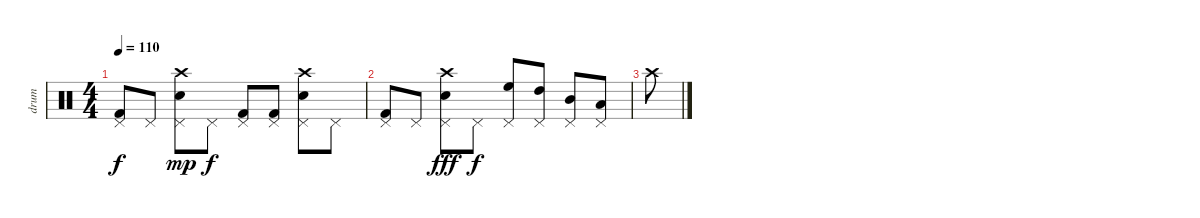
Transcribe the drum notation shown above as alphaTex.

\track ("drum" "drum") {instrument percussion}
\staff {score}
\articulation defaults
\ts (4 4)
\tempo 110
\clef neutral
\ks c
("Pedal Hi-Hat (hit)" "Kick (hit) 2").8{dy f} "Pedal Hi-Hat (hit)".8 ("Pedal Hi-Hat (hit)" "Electric Snare (hit)" "Crash high (hit)").8{dy mp} "Pedal Hi-Hat (hit)".8{dy f} ("Pedal Hi-Hat (hit)" "Kick (hit) 2").8 ("Pedal Hi-Hat (hit)" "Kick (hit) 2").8 ("Pedal Hi-Hat (hit)" "Electric Snare (hit)" "Crash high (hit)").8 "Pedal Hi-Hat (hit)".8 |
("Pedal Hi-Hat (hit)" "Kick (hit) 2").8 "Pedal Hi-Hat (hit)".8 ("Pedal Hi-Hat (hit)" "Electric Snare (hit)" "Crash high (hit)").8{dy fff} "Pedal Hi-Hat (hit)".8{dy f} ("Pedal Hi-Hat (hit)" "High Floor Tom (hit)").8 ("Pedal Hi-Hat (hit)" "High Tom (hit)").8 ("Pedal Hi-Hat (hit)" "Mid Tom (hit)").8 ("Pedal Hi-Hat (hit)" "Low Tom (hit)").8 |
"Crash high (hit)".8
